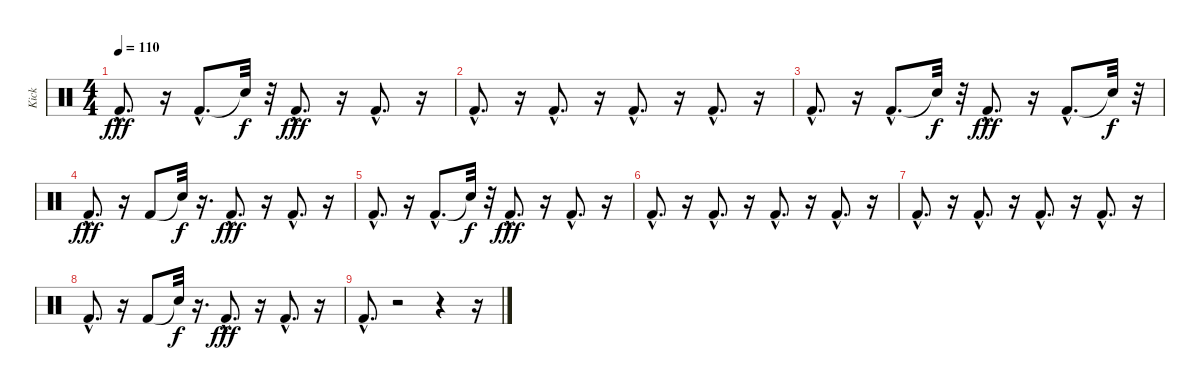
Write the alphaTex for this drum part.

\track ("Kick" "Kick") {instrument percussion}
\staff {score}
\articulation defaults
\ts (4 4)
\tempo 110
\clef neutral
\ks c "Kick (hit) 2"{hac}.8{d dy fff}
r.16 "Kick (hit) 2"{hac}.8{d} "Snare (hit)"{t}.32{dy f} r.32 "Kick (hit) 2"{hac}.8{d dy fff} r.16 "Kick (hit) 2"{hac}.8{d} r.16 |
"Kick (hit) 2"{hac}.8{d} r.16 "Kick (hit) 2"{hac}.8{d} r.16 "Kick (hit) 2"{hac}.8{d} r.16 "Kick (hit) 2"{hac}.8{d} r.16 |
"Kick (hit) 2"{hac}.8{d} r.16 "Kick (hit) 2"{hac}.8{d} "Snare (hit)"{t}.32{dy f} r.32 "Kick (hit) 2"{hac}.8{d dy fff} r.16 "Kick (hit) 2"{hac}.8{d} "Snare (hit)"{t}.32{dy f} r.32 |
"Kick (hit) 2"{hac}.8{d dy fff} r.16 "Kick (hit) 2".8 "Snare (hit)"{t}.32{dy f} r.16{d} "Kick (hit) 2"{hac}.8{d dy fff} r.16 "Kick (hit) 2"{hac}.8{d} r.16 |
"Kick (hit) 2"{hac}.8{d} r.16 "Kick (hit) 2"{hac}.8{d} "Snare (hit)"{t}.32{dy f} r.32 "Kick (hit) 2"{hac}.8{d dy fff} r.16 "Kick (hit) 2"{hac}.8{d} r.16 |
"Kick (hit) 2"{hac}.8{d} r.16 "Kick (hit) 2"{hac}.8{d} r.16 "Kick (hit) 2"{hac}.8{d} r.16 "Kick (hit) 2"{hac}.8{d} r.16 |
"Kick (hit) 2"{hac}.8{d} r.16 "Kick (hit) 2"{hac}.8{d} r.16 "Kick (hit) 2"{hac}.8{d} r.16 "Kick (hit) 2"{hac}.8{d} r.16 |
"Kick (hit) 2"{hac}.8{d} r.16 "Kick (hit) 2".8 "Snare (hit)"{t}.32{dy f} r.16{d} "Kick (hit) 2"{hac}.8{d dy fff} r.16 "Kick (hit) 2"{hac}.8{d} r.16 |
"Kick (hit) 2"{hac}.8{d} r.2 r.4 r.16
